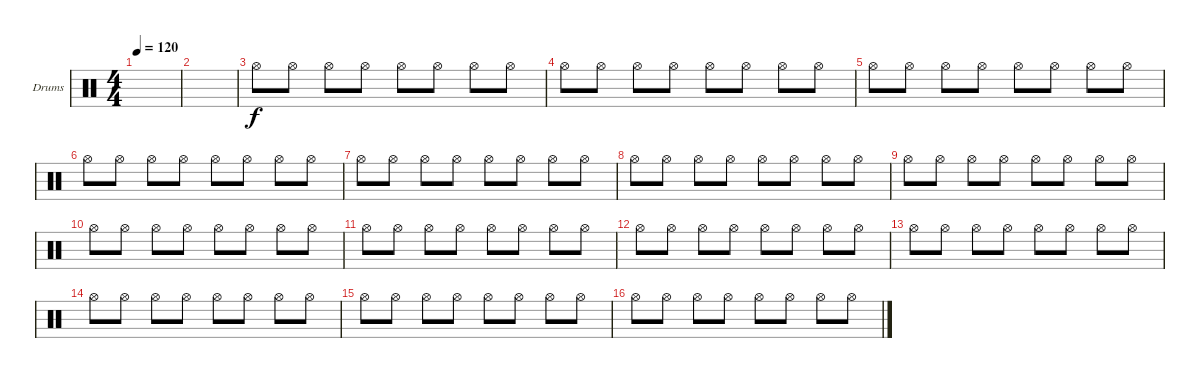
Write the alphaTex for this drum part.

\defaultSystemsLayout 4
\bracketExtendMode groupsimilarinstruments
\firstSystemTrackNameOrientation horizontal
\otherSystemsTrackNameOrientation horizontal
\track ("Drumkit" "Drums") {instrument percussion}
\staff {score}
\articulation defaults
\ts (4 4)
\tempo 120
\clef neutral
\scale
0.474178
\ks c
|
\scale
0.262911 |
\scale
0.262911 "Hi-Hat (open)".8 "Hi-Hat (open)".8 "Hi-Hat (open)".8 "Hi-Hat (open)".8 "Hi-Hat (open)".8 "Hi-Hat (open)".8 "Hi-Hat (open)".8 "Hi-Hat (open)".8 |
\scale
0.333333 "Hi-Hat (open)".8 "Hi-Hat (open)".8 "Hi-Hat (open)".8 "Hi-Hat (open)".8 "Hi-Hat (open)".8 "Hi-Hat (open)".8 "Hi-Hat (open)".8 "Hi-Hat (open)".8 |
\scale
0.333333 "Hi-Hat (open)".8 "Hi-Hat (open)".8 "Hi-Hat (open)".8 "Hi-Hat (open)".8 "Hi-Hat (open)".8 "Hi-Hat (open)".8 "Hi-Hat (open)".8 "Hi-Hat (open)".8 |
\scale
0.333333 "Hi-Hat (open)".8 "Hi-Hat (open)".8 "Hi-Hat (open)".8 "Hi-Hat (open)".8 "Hi-Hat (open)".8 "Hi-Hat (open)".8 "Hi-Hat (open)".8 "Hi-Hat (open)".8 |
\scale
0.333333 "Hi-Hat (open)".8 "Hi-Hat (open)".8 "Hi-Hat (open)".8 "Hi-Hat (open)".8 "Hi-Hat (open)".8 "Hi-Hat (open)".8 "Hi-Hat (open)".8 "Hi-Hat (open)".8 |
\scale
0.333333 "Hi-Hat (open)".8 "Hi-Hat (open)".8 "Hi-Hat (open)".8 "Hi-Hat (open)".8 "Hi-Hat (open)".8 "Hi-Hat (open)".8 "Hi-Hat (open)".8 "Hi-Hat (open)".8 |
\scale
0.333333 "Hi-Hat (open)".8 "Hi-Hat (open)".8 "Hi-Hat (open)".8 "Hi-Hat (open)".8 "Hi-Hat (open)".8 "Hi-Hat (open)".8 "Hi-Hat (open)".8 "Hi-Hat (open)".8 |
\scale
0.333333 "Hi-Hat (open)".8 "Hi-Hat (open)".8 "Hi-Hat (open)".8 "Hi-Hat (open)".8 "Hi-Hat (open)".8 "Hi-Hat (open)".8 "Hi-Hat (open)".8 "Hi-Hat (open)".8 |
\scale
0.333333 "Hi-Hat (open)".8 "Hi-Hat (open)".8 "Hi-Hat (open)".8 "Hi-Hat (open)".8 "Hi-Hat (open)".8 "Hi-Hat (open)".8 "Hi-Hat (open)".8 "Hi-Hat (open)".8 |
\scale
0.333333 "Hi-Hat (open)".8 "Hi-Hat (open)".8 "Hi-Hat (open)".8 "Hi-Hat (open)".8 "Hi-Hat (open)".8 "Hi-Hat (open)".8 "Hi-Hat (open)".8 "Hi-Hat (open)".8 |
\scale
0.333333 "Hi-Hat (open)".8 "Hi-Hat (open)".8 "Hi-Hat (open)".8 "Hi-Hat (open)".8 "Hi-Hat (open)".8 "Hi-Hat (open)".8 "Hi-Hat (open)".8 "Hi-Hat (open)".8 |
\scale
0.333333 "Hi-Hat (open)".8 "Hi-Hat (open)".8 "Hi-Hat (open)".8 "Hi-Hat (open)".8 "Hi-Hat (open)".8 "Hi-Hat (open)".8 "Hi-Hat (open)".8 "Hi-Hat (open)".8 |
\scale
0.333333 "Hi-Hat (open)".8 "Hi-Hat (open)".8 "Hi-Hat (open)".8 "Hi-Hat (open)".8 "Hi-Hat (open)".8 "Hi-Hat (open)".8 "Hi-Hat (open)".8 "Hi-Hat (open)".8 |
\scale
0.333333 "Hi-Hat (open)".8 "Hi-Hat (open)".8 "Hi-Hat (open)".8 "Hi-Hat (open)".8 "Hi-Hat (open)".8 "Hi-Hat (open)".8 "Hi-Hat (open)".8 "Hi-Hat (open)".8
